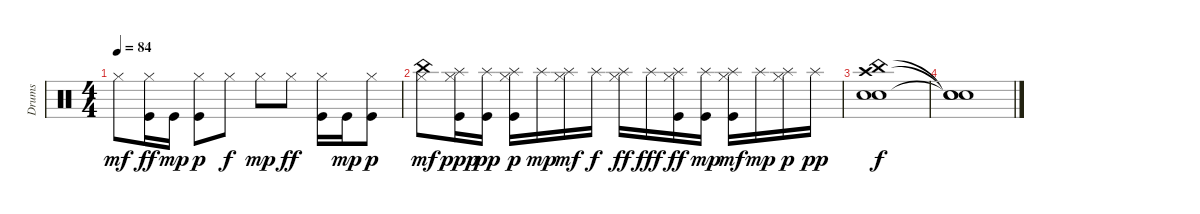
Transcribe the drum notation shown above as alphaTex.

\track ("Drums" "Drums") {instrument percussion}
\staff {score}
\articulation defaults
\ts (4 4)
\tempo 84
\clef neutral
\ks c "Hi-Hat (closed)".8{dy mf}
("Hi-Hat (closed)" "Kick (hit)").16{dy ff} "Kick (hit)".16{dy mp} ("Hi-Hat (closed)" "Kick (hit)").8{dy p} "Hi-Hat (closed)".8{dy f} "Hi-Hat (closed)".8{dy mp} "Hi-Hat (closed)".8{dy ff} ("Hi-Hat (closed)" "Kick (hit)").16 "Kick (hit)".16{dy mp} ("Hi-Hat (closed)" "Kick (hit)").8{dy p} |
("Hi-Hat (closed)" "China (hit)").8{dy mf} ("Hi-Hat (closed)" "Kick (hit)" "Splash (hit)").16{dy ppp} ("Kick (hit)" "Splash (hit)").16{dy pp} ("Hi-Hat (closed)" "Kick (hit)" "Splash (hit)").16{dy p} "Splash (hit)".16{dy mp} ("Hi-Hat (closed)" "Splash (hit)").16{dy mf} "Splash (hit)".16{dy f} ("Hi-Hat (closed)" "Splash (hit)").16{dy ff} "Splash (hit)".16{dy fff} ("Hi-Hat (closed)" "Kick (hit)" "Splash (hit)").16{dy ff} ("Kick (hit)" "Splash (hit)").16{dy mp} ("Hi-Hat (closed)" "Kick (hit)" "Splash (hit)").16{dy mf} "Splash (hit)".16{dy mp} ("Hi-Hat (closed)" "Splash (hit)").16{dy p} "Splash (hit)".16{dy pp} |
("China (hit)" "Crash high (hit)" "Electric Snare (hit)" "Snare (hit) 2").1{dy f} |
("Snare (hit)"{t} "Snare (hit)"{t} "Snare (hit)"{t}).1
